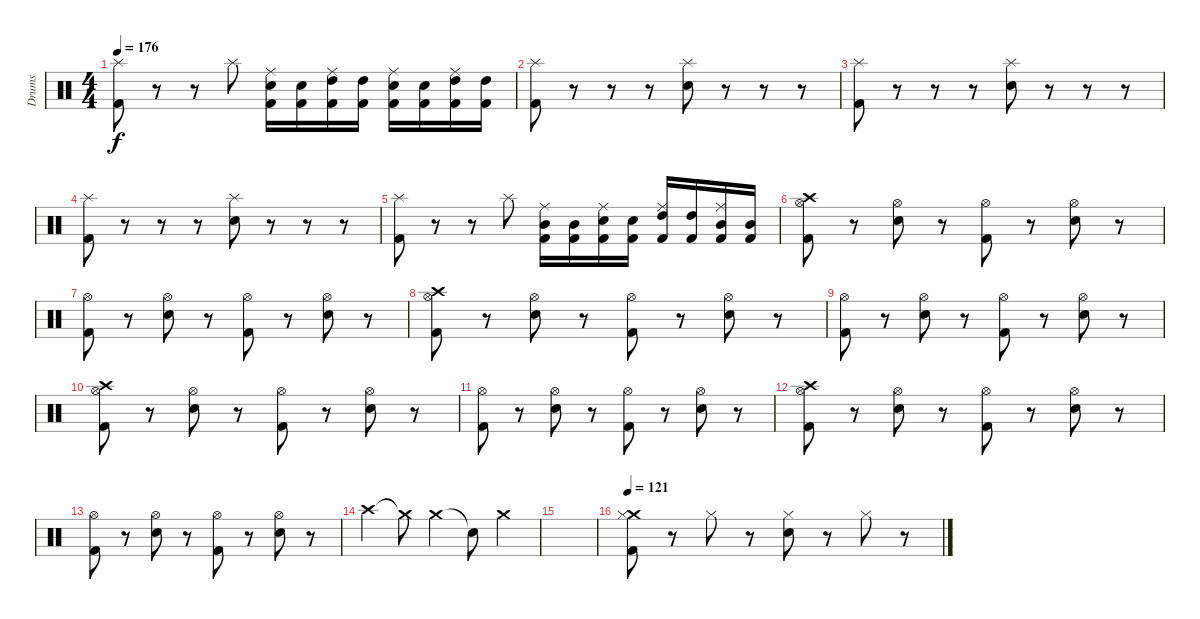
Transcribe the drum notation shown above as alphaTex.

\track ("Drums" "Drums") {instrument percussion}
\staff {score}
\articulation defaults
\ts (4 4)
\tempo 176
\clef neutral
\ks c
("Splash (hit)" "Kick (hit) 2").8{dy f} r.8 r.8 "Splash (hit)".8 ("Electric Snare (hit)" "Ride (middle)" "Kick (hit) 2").16 ("Electric Snare (hit)" "Kick (hit) 2").16 ("High Tom (hit)" "Ride (middle)" "Kick (hit) 2").16 ("High Tom (hit)" "Kick (hit) 2").16 ("Electric Snare (hit)" "Ride (middle)" "Kick (hit) 2").16 ("Electric Snare (hit)" "Kick (hit) 2").16 ("High Tom (hit)" "Ride (middle)" "Kick (hit) 2").16 ("High Tom (hit)" "Kick (hit) 2").16 |
("Splash (hit)" "Kick (hit) 2").8 r.8 r.8 r.8 ("Splash (hit)" "Electric Snare (hit)").8 r.8 r.8 r.8 |
("Splash (hit)" "Kick (hit) 2").8 r.8 r.8 r.8 ("Splash (hit)" "Electric Snare (hit)").8 r.8 r.8 r.8 |
("Splash (hit)" "Kick (hit) 2").8 r.8 r.8 r.8 ("Splash (hit)" "Electric Snare (hit)").8 r.8 r.8 r.8 |
("Splash (hit)" "Kick (hit) 2").8 r.8 r.8 "Splash (hit)".8 ("Mid Tom (hit)" "Ride (middle)" "Kick (hit) 2").16 ("Mid Tom (hit)" "Kick (hit) 2").16 ("Electric Snare (hit)" "Ride (middle)" "Kick (hit) 2").16 ("Electric Snare (hit)" "Kick (hit) 2").16 ("High Tom (hit)" "Ride (middle)" "Kick (hit) 2").16 ("High Tom (hit)" "Kick (hit) 2").16 ("Mid Tom (hit)" "Ride (middle)" "Kick (hit) 2").16 ("Mid Tom (hit)" "Kick (hit) 2").16 |
("Crash high (hit)" "Hi-Hat (open)" "Kick (hit) 2").8 r.8 ("Electric Snare (hit)" "Hi-Hat (open)").8 r.8 ("Hi-Hat (open)" "Kick (hit) 2").8 r.8 ("Electric Snare (hit)" "Hi-Hat (open)").8 r.8 |
("Hi-Hat (open)" "Kick (hit) 2").8 r.8 ("Electric Snare (hit)" "Hi-Hat (open)").8 r.8 ("Hi-Hat (open)" "Kick (hit) 2").8 r.8 ("Electric Snare (hit)" "Hi-Hat (open)").8 r.8 |
("Crash high (hit)" "Hi-Hat (open)" "Kick (hit) 2").8 r.8 ("Electric Snare (hit)" "Hi-Hat (open)").8 r.8 ("Hi-Hat (open)" "Kick (hit) 2").8 r.8 ("Electric Snare (hit)" "Hi-Hat (open)").8 r.8 |
("Hi-Hat (open)" "Kick (hit) 2").8 r.8 ("Electric Snare (hit)" "Hi-Hat (open)").8 r.8 ("Hi-Hat (open)" "Kick (hit) 2").8 r.8 ("Electric Snare (hit)" "Hi-Hat (open)").8 r.8 |
("Crash high (hit)" "Hi-Hat (open)" "Kick (hit) 2").8 r.8 ("Electric Snare (hit)" "Hi-Hat (open)").8 r.8 ("Hi-Hat (open)" "Kick (hit) 2").8 r.8 ("Electric Snare (hit)" "Hi-Hat (open)").8 r.8 |
("Hi-Hat (open)" "Kick (hit) 2").8 r.8 ("Electric Snare (hit)" "Hi-Hat (open)").8 r.8 ("Hi-Hat (open)" "Kick (hit) 2").8 r.8 ("Electric Snare (hit)" "Hi-Hat (open)").8 r.8 |
("Crash high (hit)" "Hi-Hat (open)" "Kick (hit) 2").8 r.8 ("Electric Snare (hit)" "Hi-Hat (open)").8 r.8 ("Hi-Hat (open)" "Kick (hit) 2").8 r.8 ("Electric Snare (hit)" "Hi-Hat (open)").8 r.8 |
("Hi-Hat (open)" "Kick (hit) 2").8 r.8 ("Electric Snare (hit)" "Hi-Hat (open)").8 r.8 ("Hi-Hat (open)" "Kick (hit) 2").8 r.8 ("Electric Snare (hit)" "Hi-Hat (open)").8 r.8 |
"Crash high (hit)".4 "Crash medium (hit)"{t}.8 "Crash medium (hit)".4 "Snare (hit)"{t}.8 "Crash medium (hit)".4 |
|
\tempo 121
("Crash medium (hit)" "Hi-Hat (closed)" "Kick (hit) 2").8 r.8 "Hi-Hat (closed)".8 r.8 ("Electric Snare (hit)" "Hi-Hat (closed)").8 r.8 "Hi-Hat (closed)".8 r.8
